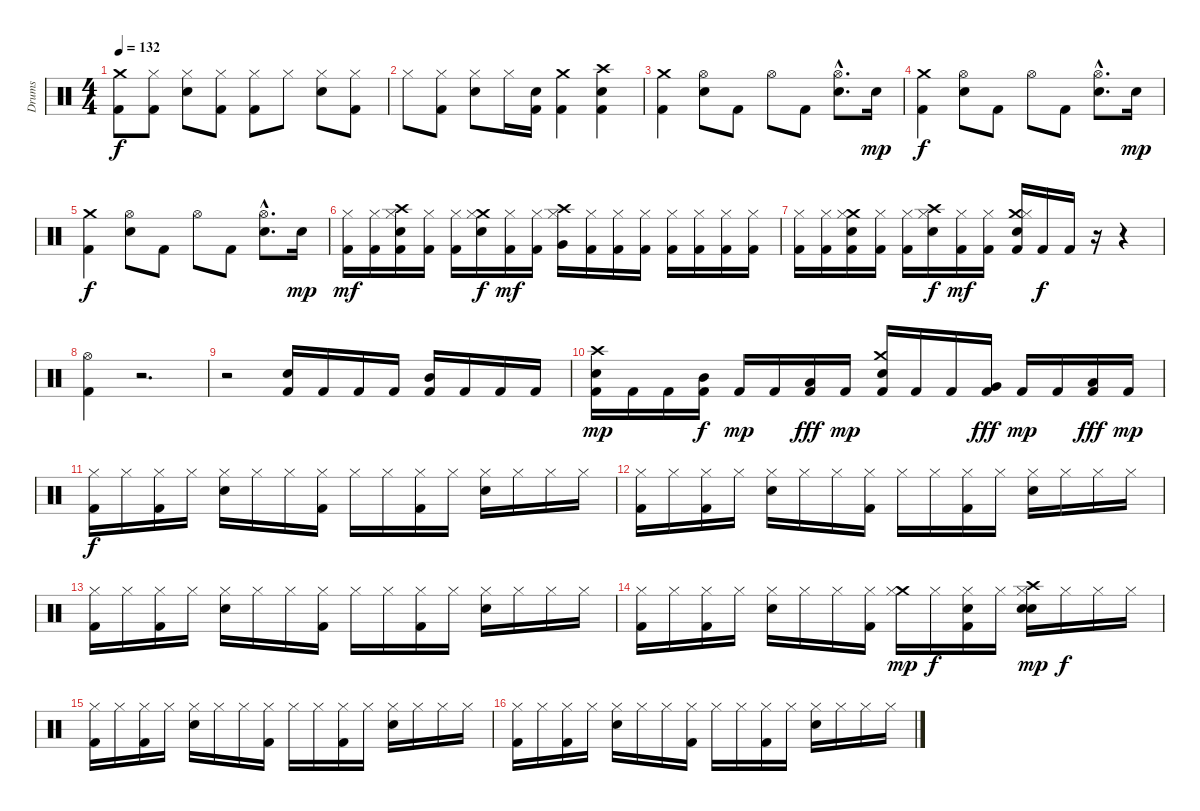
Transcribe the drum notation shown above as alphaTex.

\track ("Drums" "Drums") {instrument percussion}
\staff {score}
\articulation defaults
\ts (4 4)
\tempo 132
\clef neutral
\ks c
("Kick (hit) 2" "Crash medium (hit)").8{dy f} ("Kick (hit) 2" "Hi-Hat (closed)").8 ("Hi-Hat (closed)" "Snare (hit) 2").8 ("Kick (hit) 2" "Hi-Hat (closed)").8 ("Kick (hit) 2" "Hi-Hat (closed)").8 "Hi-Hat (closed)".8 ("Hi-Hat (closed)" "Snare (hit) 2").8 ("Kick (hit) 2" "Hi-Hat (closed)").8 |
"Hi-Hat (closed)".8 ("Kick (hit) 2" "Hi-Hat (closed)").8 ("Hi-Hat (closed)" "Snare (hit) 2").8 "Hi-Hat (closed)".16 ("Kick (hit) 2" "Snare (hit) 2").16 ("Kick (hit) 2" "Crash medium (hit)").4 ("Kick (hit) 2" "Crash high (hit)" "Snare (hit) 2").4 |
("Kick (hit) 2" "Crash medium (hit)").4 ("Hi-Hat (open)" "Snare (hit) 2").8 "Kick (hit) 2".8 "Hi-Hat (open)".8 "Kick (hit) 2".8 ("Hi-Hat (open)"{hac} "Snare (hit) 2"{hac}).8{d} "Snare (hit) 2".16{dy mp} |
("Kick (hit) 2" "Crash medium (hit)").4{dy f} ("Hi-Hat (open)" "Snare (hit) 2").8 "Kick (hit) 2".8 "Hi-Hat (open)".8 "Kick (hit) 2".8 ("Hi-Hat (open)"{hac} "Snare (hit) 2"{hac}).8{d} "Snare (hit) 2".16{dy mp} |
("Kick (hit) 2" "Crash medium (hit)").4{dy f} ("Hi-Hat (open)" "Snare (hit) 2").8 "Kick (hit) 2".8 "Hi-Hat (open)".8 "Kick (hit) 2".8 ("Hi-Hat (open)"{hac} "Snare (hit) 2"{hac}).8{d} "Snare (hit) 2".16{dy mp} |
("Kick (hit) 2" "Hi-Hat (closed)").16{dy mf} ("Kick (hit) 2" "Hi-Hat (closed)").16 ("Kick (hit) 2" "Crash high (hit)" "Hi-Hat (closed)" "Snare (hit) 2").16 ("Kick (hit) 2" "Hi-Hat (closed)").16 ("Kick (hit) 2" "Hi-Hat (closed)").16 ("Crash medium (hit)" "Hi-Hat (closed)" "Snare (hit) 2").16{dy f} ("Kick (hit) 2" "Hi-Hat (closed)").16{dy mf} ("Kick (hit) 2" "Hi-Hat (closed)").16 ("Crash high (hit)" "Very Low Tom (hit)" "Hi-Hat (closed)").16 ("Kick (hit) 2" "Hi-Hat (closed)").16 ("Kick (hit) 2" "Hi-Hat (closed)").16 ("Kick (hit) 2" "Hi-Hat (closed)").16 ("Kick (hit) 2" "Hi-Hat (closed)").16 ("Kick (hit) 2" "Hi-Hat (closed)").16 ("Kick (hit) 2" "Hi-Hat (closed)").16 ("Kick (hit) 2" "Hi-Hat (closed)").16 |
("Kick (hit) 2" "Hi-Hat (closed)").16 ("Kick (hit) 2" "Hi-Hat (closed)").16 ("Kick (hit) 2" "Crash medium (hit)" "Hi-Hat (closed)" "Snare (hit) 2").16 ("Kick (hit) 2" "Hi-Hat (closed)").16 ("Kick (hit) 2" "Hi-Hat (closed)").16 ("Crash high (hit)" "Hi-Hat (closed)" "Snare (hit) 2").16{dy f} ("Kick (hit) 2" "Hi-Hat (closed)").16{dy mf} ("Kick (hit) 2" "Hi-Hat (closed)").16 ("Kick (hit) 2" "Crash medium (hit)" "Hi-Hat (closed)" "Snare (hit) 2").16 "Kick (hit) 2".16{dy f} "Kick (hit) 2".16 r.16 r.4 |
("Kick (hit) 2" "Hi-Hat (open)").4 r.2{d} |
r.2 ("Kick (hit) 2" "Snare (hit) 2").16 "Kick (hit) 2".16 "Kick (hit) 2".16 "Kick (hit) 2".16 ("Kick (hit) 2" "Mid Tom (hit)").16 "Kick (hit) 2".16 "Kick (hit) 2".16 "Kick (hit) 2".16 |
("Kick (hit) 2" "Crash high (hit)" "Snare (hit) 2").16{dy mp} "Kick (hit) 2".16 "Kick (hit) 2".16 ("Kick (hit) 2" "Mid Tom (hit)").16{dy f} "Kick (hit) 2".16{dy mp} "Kick (hit) 2".16 ("Kick (hit) 2" "Low Tom (hit)").16{dy fff} "Kick (hit) 2".16{dy mp} ("Kick (hit) 2" "Crash medium (hit)" "Snare (hit) 2").16 "Kick (hit) 2".16 "Kick (hit) 2".16 ("Kick (hit) 2" "Very Low Tom (hit)").16{dy fff} "Kick (hit) 2".16{dy mp} "Kick (hit) 2".16 ("Kick (hit) 2" "Low Floor Tom (hit)").16{dy fff} "Kick (hit) 2".16{dy mp} |
("Kick (hit) 2" "Hi-Hat (closed)").16{dy f} "Hi-Hat (closed)".16 ("Kick (hit) 2" "Hi-Hat (closed)").16 "Hi-Hat (closed)".16 ("Hi-Hat (closed)" "Snare (hit) 2").16 "Hi-Hat (closed)".16 "Hi-Hat (closed)".16 ("Kick (hit) 2" "Hi-Hat (closed)").16 "Hi-Hat (closed)".16 "Hi-Hat (closed)".16 ("Kick (hit) 2" "Hi-Hat (closed)").16 "Hi-Hat (closed)".16 ("Hi-Hat (closed)" "Snare (hit) 2").16 "Hi-Hat (closed)".16 "Hi-Hat (closed)".16 "Hi-Hat (closed)".16 |
("Kick (hit) 2" "Hi-Hat (closed)").16 "Hi-Hat (closed)".16 ("Kick (hit) 2" "Hi-Hat (closed)").16 "Hi-Hat (closed)".16 ("Hi-Hat (closed)" "Snare (hit) 2").16 "Hi-Hat (closed)".16 "Hi-Hat (closed)".16 ("Kick (hit) 2" "Hi-Hat (closed)").16 "Hi-Hat (closed)".16 "Hi-Hat (closed)".16 ("Kick (hit) 2" "Hi-Hat (closed)").16 "Hi-Hat (closed)".16 ("Hi-Hat (closed)" "Snare (hit) 2").16 "Hi-Hat (closed)".16 "Hi-Hat (closed)".16 "Hi-Hat (closed)".16 |
("Kick (hit) 2" "Hi-Hat (closed)").16 "Hi-Hat (closed)".16 ("Kick (hit) 2" "Hi-Hat (closed)").16 "Hi-Hat (closed)".16 ("Hi-Hat (closed)" "Snare (hit) 2").16 "Hi-Hat (closed)".16 "Hi-Hat (closed)".16 ("Kick (hit) 2" "Hi-Hat (closed)").16 "Hi-Hat (closed)".16 "Hi-Hat (closed)".16 ("Kick (hit) 2" "Hi-Hat (closed)").16 "Hi-Hat (closed)".16 ("Hi-Hat (closed)" "Snare (hit) 2").16 "Hi-Hat (closed)".16 "Hi-Hat (closed)".16 "Hi-Hat (closed)".16 |
("Kick (hit) 2" "Hi-Hat (closed)").16 "Hi-Hat (closed)".16 ("Kick (hit) 2" "Hi-Hat (closed)").16 "Hi-Hat (closed)".16 ("Hi-Hat (closed)" "Snare (hit) 2").16 "Hi-Hat (closed)".16 "Hi-Hat (closed)".16 ("Kick (hit) 2" "Hi-Hat (closed)").16 ("Crash medium (hit)" "Hi-Hat (closed)").16{dy mp} "Hi-Hat (closed)".16{dy f} ("Kick (hit) 2" "Hi-Hat (closed)" "Hand Clap (hit)").16 "Hi-Hat (closed)".16 ("Crash high (hit)" "Hi-Hat (closed)" "Snare (hit) 2" "Hand Clap (hit)").16{dy mp} "Hi-Hat (closed)".16{dy f} "Hi-Hat (closed)".16 "Hi-Hat (closed)".16 |
("Kick (hit) 2" "Hi-Hat (closed)").16 "Hi-Hat (closed)".16 ("Kick (hit) 2" "Hi-Hat (closed)").16 "Hi-Hat (closed)".16 ("Hi-Hat (closed)" "Snare (hit) 2").16 "Hi-Hat (closed)".16 "Hi-Hat (closed)".16 ("Kick (hit) 2" "Hi-Hat (closed)").16 "Hi-Hat (closed)".16 "Hi-Hat (closed)".16 ("Kick (hit) 2" "Hi-Hat (closed)").16 "Hi-Hat (closed)".16 ("Hi-Hat (closed)" "Snare (hit) 2").16 "Hi-Hat (closed)".16 "Hi-Hat (closed)".16 "Hi-Hat (closed)".16 |
("Kick (hit) 2" "Hi-Hat (closed)").16 "Hi-Hat (closed)".16 ("Kick (hit) 2" "Hi-Hat (closed)").16 "Hi-Hat (closed)".16 ("Hi-Hat (closed)" "Snare (hit) 2").16 "Hi-Hat (closed)".16 "Hi-Hat (closed)".16 ("Kick (hit) 2" "Hi-Hat (closed)").16 "Hi-Hat (closed)".16 "Hi-Hat (closed)".16 ("Kick (hit) 2" "Hi-Hat (closed)").16 "Hi-Hat (closed)".16 ("Hi-Hat (closed)" "Snare (hit) 2").16 "Hi-Hat (closed)".16 "Hi-Hat (closed)".16 "Hi-Hat (closed)".16
